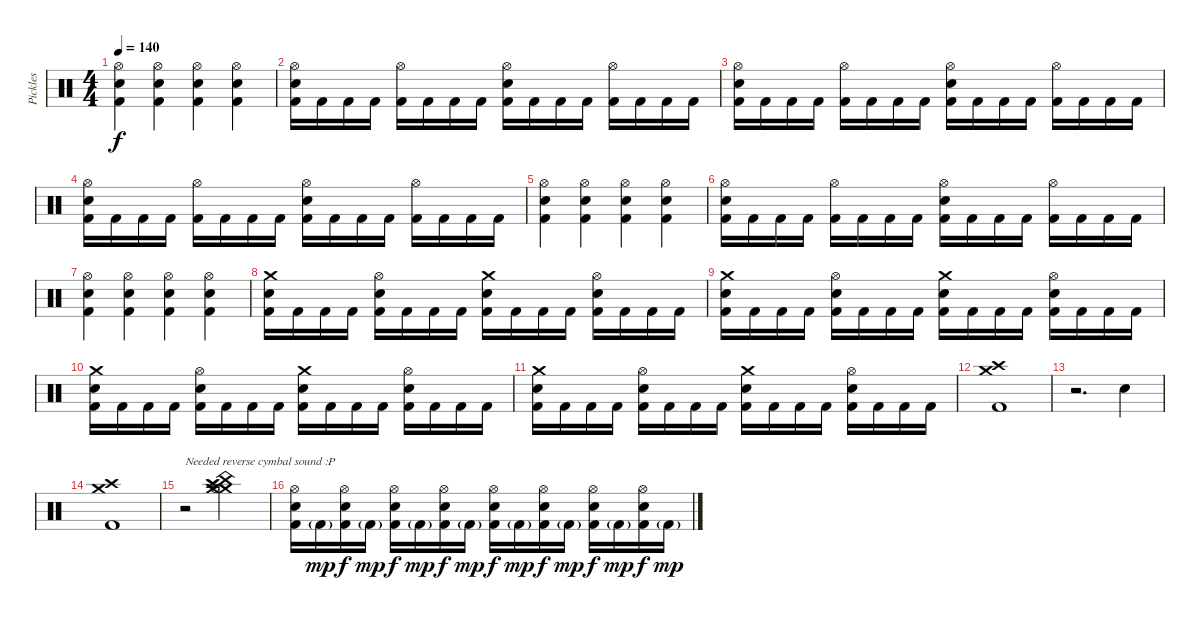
\track ("Pickles" "Pickles") {instrument percussion}
\staff {score}
\articulation defaults
\ts (4 4)
\tempo 140
\clef neutral
\ks c
("Hi-Hat (open)" "Electric Snare (hit)" "Kick (hit) 2").4{dy f} ("Hi-Hat (open)" "Electric Snare (hit)" "Kick (hit) 2").4 ("Hi-Hat (open)" "Electric Snare (hit)" "Kick (hit) 2").4 ("Hi-Hat (open)" "Electric Snare (hit)" "Kick (hit) 2").4 |
("Hi-Hat (open)" "Electric Snare (hit)" "Kick (hit) 2").16 "Kick (hit) 2".16 "Kick (hit) 2".16 "Kick (hit) 2".16 ("Hi-Hat (open)" "Kick (hit) 2").16 "Kick (hit) 2".16 "Kick (hit) 2".16 "Kick (hit) 2".16 ("Hi-Hat (open)" "Electric Snare (hit)" "Kick (hit) 2").16 "Kick (hit) 2".16 "Kick (hit) 2".16 "Kick (hit) 2".16 ("Hi-Hat (open)" "Kick (hit) 2").16 "Kick (hit) 2".16 "Kick (hit) 2".16 "Kick (hit) 2".16 |
("Hi-Hat (open)" "Electric Snare (hit)" "Kick (hit) 2").16 "Kick (hit) 2".16 "Kick (hit) 2".16 "Kick (hit) 2".16 ("Hi-Hat (open)" "Kick (hit) 2").16 "Kick (hit) 2".16 "Kick (hit) 2".16 "Kick (hit) 2".16 ("Hi-Hat (open)" "Electric Snare (hit)" "Kick (hit) 2").16 "Kick (hit) 2".16 "Kick (hit) 2".16 "Kick (hit) 2".16 ("Hi-Hat (open)" "Kick (hit) 2").16 "Kick (hit) 2".16 "Kick (hit) 2".16 "Kick (hit) 2".16 |
("Hi-Hat (open)" "Electric Snare (hit)" "Kick (hit) 2").16 "Kick (hit) 2".16 "Kick (hit) 2".16 "Kick (hit) 2".16 ("Hi-Hat (open)" "Kick (hit) 2").16 "Kick (hit) 2".16 "Kick (hit) 2".16 "Kick (hit) 2".16 ("Hi-Hat (open)" "Electric Snare (hit)" "Kick (hit) 2").16 "Kick (hit) 2".16 "Kick (hit) 2".16 "Kick (hit) 2".16 ("Hi-Hat (open)" "Kick (hit) 2").16 "Kick (hit) 2".16 "Kick (hit) 2".16 "Kick (hit) 2".16 |
("Hi-Hat (open)" "Electric Snare (hit)" "Kick (hit) 2").4 ("Hi-Hat (open)" "Electric Snare (hit)" "Kick (hit) 2").4 ("Hi-Hat (open)" "Electric Snare (hit)" "Kick (hit) 2").4 ("Hi-Hat (open)" "Electric Snare (hit)" "Kick (hit) 2").4 |
("Hi-Hat (open)" "Electric Snare (hit)" "Kick (hit) 2").16 "Kick (hit) 2".16 "Kick (hit) 2".16 "Kick (hit) 2".16 ("Hi-Hat (open)" "Kick (hit) 2").16 "Kick (hit) 2".16 "Kick (hit) 2".16 "Kick (hit) 2".16 ("Hi-Hat (open)" "Electric Snare (hit)" "Kick (hit) 2").16 "Kick (hit) 2".16 "Kick (hit) 2".16 "Kick (hit) 2".16 ("Hi-Hat (open)" "Kick (hit) 2").16 "Kick (hit) 2".16 "Kick (hit) 2".16 "Kick (hit) 2".16 |
("Hi-Hat (open)" "Electric Snare (hit)" "Kick (hit) 2").4 ("Hi-Hat (open)" "Electric Snare (hit)" "Kick (hit) 2").4 ("Hi-Hat (open)" "Electric Snare (hit)" "Kick (hit) 2").4 ("Hi-Hat (open)" "Electric Snare (hit)" "Kick (hit) 2").4 |
("Crash medium (hit)" "Electric Snare (hit)" "Kick (hit) 2").16 "Kick (hit) 2".16 "Kick (hit) 2".16 "Kick (hit) 2".16 ("Hi-Hat (open)" "Electric Snare (hit)" "Kick (hit) 2").16 "Kick (hit) 2".16 "Kick (hit) 2".16 "Kick (hit) 2".16 ("Crash medium (hit)" "Electric Snare (hit)" "Kick (hit) 2").16 "Kick (hit) 2".16 "Kick (hit) 2".16 "Kick (hit) 2".16 ("Hi-Hat (open)" "Electric Snare (hit)" "Kick (hit) 2").16 "Kick (hit) 2".16 "Kick (hit) 2".16 "Kick (hit) 2".16 |
("Crash medium (hit)" "Electric Snare (hit)" "Kick (hit) 2").16 "Kick (hit) 2".16 "Kick (hit) 2".16 "Kick (hit) 2".16 ("Hi-Hat (open)" "Electric Snare (hit)" "Kick (hit) 2").16 "Kick (hit) 2".16 "Kick (hit) 2".16 "Kick (hit) 2".16 ("Crash medium (hit)" "Electric Snare (hit)" "Kick (hit) 2").16 "Kick (hit) 2".16 "Kick (hit) 2".16 "Kick (hit) 2".16 ("Hi-Hat (open)" "Electric Snare (hit)" "Kick (hit) 2").16 "Kick (hit) 2".16 "Kick (hit) 2".16 "Kick (hit) 2".16 |
("Crash medium (hit)" "Electric Snare (hit)" "Kick (hit) 2").16 "Kick (hit) 2".16 "Kick (hit) 2".16 "Kick (hit) 2".16 ("Hi-Hat (open)" "Electric Snare (hit)" "Kick (hit) 2").16 "Kick (hit) 2".16 "Kick (hit) 2".16 "Kick (hit) 2".16 ("Crash medium (hit)" "Electric Snare (hit)" "Kick (hit) 2").16 "Kick (hit) 2".16 "Kick (hit) 2".16 "Kick (hit) 2".16 ("Hi-Hat (open)" "Electric Snare (hit)" "Kick (hit) 2").16 "Kick (hit) 2".16 "Kick (hit) 2".16 "Kick (hit) 2".16 |
("Crash medium (hit)" "Electric Snare (hit)" "Kick (hit) 2").16 "Kick (hit) 2".16 "Kick (hit) 2".16 "Kick (hit) 2".16 ("Hi-Hat (open)" "Electric Snare (hit)" "Kick (hit) 2").16 "Kick (hit) 2".16 "Kick (hit) 2".16 "Kick (hit) 2".16 ("Crash medium (hit)" "Electric Snare (hit)" "Kick (hit) 2").16 "Kick (hit) 2".16 "Kick (hit) 2".16 "Kick (hit) 2".16 ("Hi-Hat (open)" "Electric Snare (hit)" "Kick (hit) 2").16 "Kick (hit) 2".16 "Kick (hit) 2".16 "Kick (hit) 2".16 |
("Crash medium (hit)" "Crash high (hit)" "Kick (hit) 2").1 |
r.2{d} "Electric Snare (hit)".4 |
("Crash medium (hit)" "Crash high (hit)" "Kick (hit) 2").1{volume 0} |
r.2{txt "Needed reverse cymbal sound :P" volume 0} ("Crash medium (hit)" "Hi-Hat (open)" "Crash high (hit)" "Crash medium (hit)" "China (hit)" "Splash (hit)").2{volume 16} |
("Hi-Hat (open)" "Electric Snare (hit)" "Kick (hit) 2").16{volume 11} "Kick (hit) 2"{g}.16{dy mp} ("Hi-Hat (open)" "Electric Snare (hit)" "Kick (hit) 2").16{dy f} "Kick (hit) 2"{g}.16{dy mp} ("Hi-Hat (open)" "Electric Snare (hit)" "Kick (hit) 2").16{dy f} "Kick (hit) 2"{g}.16{dy mp} ("Hi-Hat (open)" "Electric Snare (hit)" "Kick (hit) 2").16{dy f} "Kick (hit) 2"{g}.16{dy mp} ("Hi-Hat (open)" "Electric Snare (hit)" "Kick (hit) 2").16{dy f} "Kick (hit) 2"{g}.16{dy mp} ("Hi-Hat (open)" "Electric Snare (hit)" "Kick (hit) 2").16{dy f} "Kick (hit) 2"{g}.16{dy mp} ("Hi-Hat (open)" "Electric Snare (hit)" "Kick (hit) 2").16{dy f} "Kick (hit) 2"{g}.16{dy mp} ("Hi-Hat (open)" "Electric Snare (hit)" "Kick (hit) 2").16{dy f} "Kick (hit) 2"{g}.16{dy mp}
